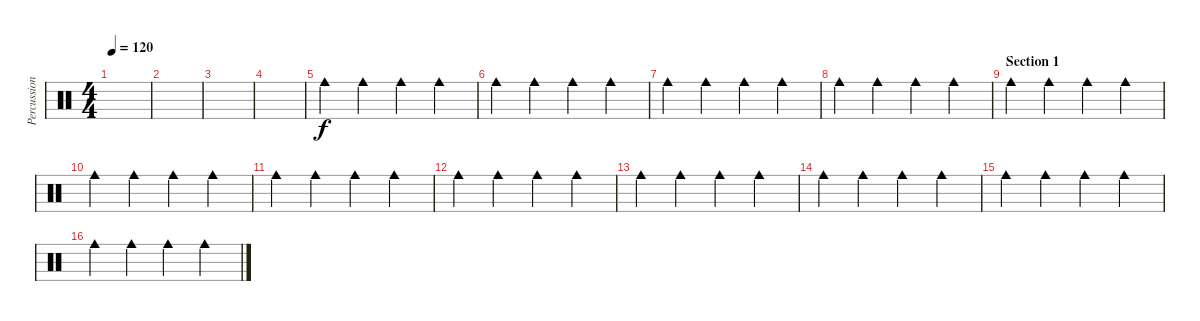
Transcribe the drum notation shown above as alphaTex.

\track ("Percussions" "Percussion") {instrument percussion}
\staff {score}
\articulation defaults
\ts (4 4)
\tempo 120
\clef neutral
\ks c
|
|
|
|
"Cowbell medium (hit)".4 "Cowbell medium (hit)".4 "Cowbell medium (hit)".4 "Cowbell medium (hit)".4 |
"Cowbell medium (hit)".4 "Cowbell medium (hit)".4 "Cowbell medium (hit)".4 "Cowbell medium (hit)".4 |
"Cowbell medium (hit)".4 "Cowbell medium (hit)".4 "Cowbell medium (hit)".4 "Cowbell medium (hit)".4 |
"Cowbell medium (hit)".4 "Cowbell medium (hit)".4 "Cowbell medium (hit)".4 "Cowbell medium (hit)".4 |
\section ("" "Section 1")
"Cowbell medium (hit)".4 "Cowbell medium (hit)".4 "Cowbell medium (hit)".4 "Cowbell medium (hit)".4 |
"Cowbell medium (hit)".4 "Cowbell medium (hit)".4 "Cowbell medium (hit)".4 "Cowbell medium (hit)".4 |
"Cowbell medium (hit)".4 "Cowbell medium (hit)".4 "Cowbell medium (hit)".4 "Cowbell medium (hit)".4 |
"Cowbell medium (hit)".4 "Cowbell medium (hit)".4 "Cowbell medium (hit)".4 "Cowbell medium (hit)".4 |
"Cowbell medium (hit)".4 "Cowbell medium (hit)".4 "Cowbell medium (hit)".4 "Cowbell medium (hit)".4 |
"Cowbell medium (hit)".4 "Cowbell medium (hit)".4 "Cowbell medium (hit)".4 "Cowbell medium (hit)".4 |
"Cowbell medium (hit)".4 "Cowbell medium (hit)".4 "Cowbell medium (hit)".4 "Cowbell medium (hit)".4 |
"Cowbell medium (hit)".4 "Cowbell medium (hit)".4 "Cowbell medium (hit)".4 "Cowbell medium (hit)".4
